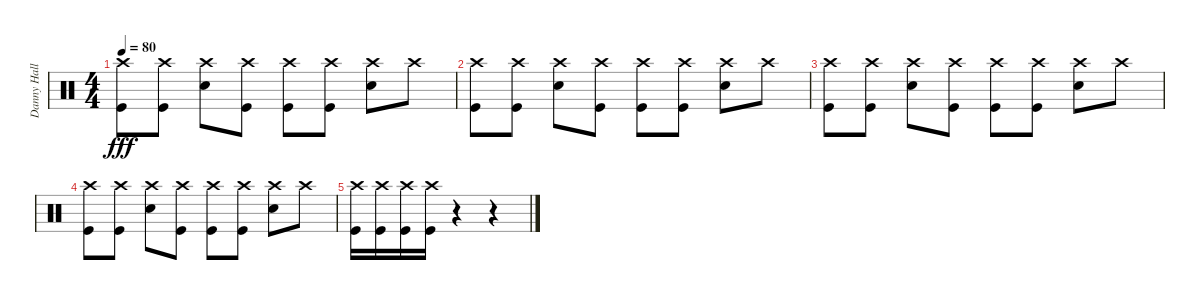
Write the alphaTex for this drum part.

\track ("Danny Hall" "Danny Hall") {instrument percussion}
\staff {score}
\articulation defaults
\ts (4 4)
\tempo 80
\clef neutral
\ks c
("Crash high (hit)" "Kick (hit)").8{dy fff} ("Crash high (hit)" "Kick (hit)").8 ("Crash high (hit)" "Snare (hit) 2").8 ("Crash high (hit)" "Kick (hit)").8 ("Crash high (hit)" "Kick (hit)").8 ("Crash high (hit)" "Kick (hit)").8 ("Crash high (hit)" "Snare (hit) 2").8 "Crash high (hit)".8 |
("Crash high (hit)" "Kick (hit)").8 ("Crash high (hit)" "Kick (hit)").8 ("Crash high (hit)" "Snare (hit) 2").8 ("Crash high (hit)" "Kick (hit)").8 ("Crash high (hit)" "Kick (hit)").8 ("Crash high (hit)" "Kick (hit)").8 ("Crash high (hit)" "Snare (hit) 2").8 "Crash high (hit)".8 |
("Crash high (hit)" "Kick (hit)").8 ("Crash high (hit)" "Kick (hit)").8 ("Crash high (hit)" "Snare (hit) 2").8 ("Crash high (hit)" "Kick (hit)").8 ("Crash high (hit)" "Kick (hit)").8 ("Crash high (hit)" "Kick (hit)").8 ("Crash high (hit)" "Snare (hit) 2").8 "Crash high (hit)".8 |
("Crash high (hit)" "Kick (hit)").8 ("Crash high (hit)" "Kick (hit)").8 ("Crash high (hit)" "Snare (hit) 2").8 ("Crash high (hit)" "Kick (hit)").8 ("Crash high (hit)" "Kick (hit)").8 ("Crash high (hit)" "Kick (hit)").8 ("Crash high (hit)" "Snare (hit) 2").8 "Crash high (hit)".8 |
("Crash high (hit)" "Kick (hit)").16 ("Crash high (hit)" "Kick (hit)").16 ("Crash high (hit)" "Kick (hit)").16 ("Crash high (hit)" "Kick (hit)").16 r.4 r.4
